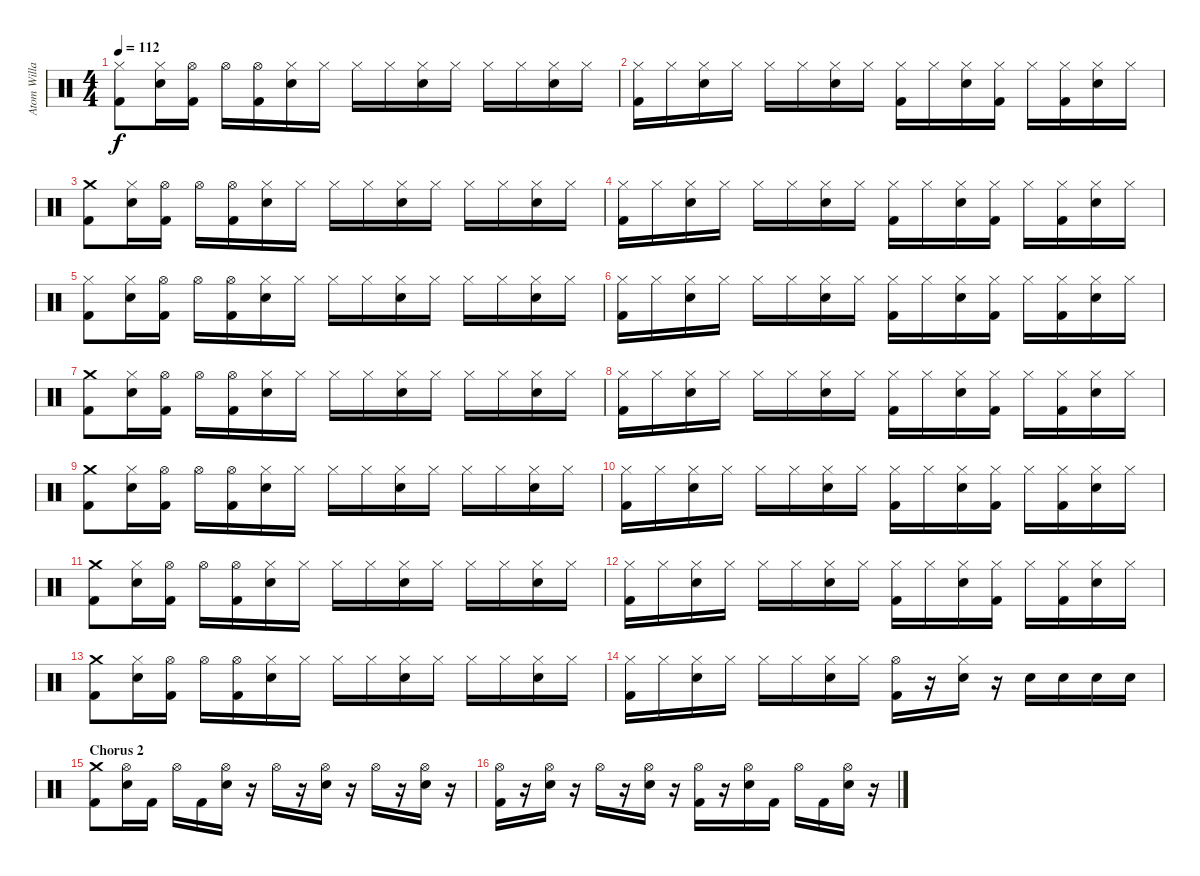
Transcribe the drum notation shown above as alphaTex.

\track ("Atom Willard Drums" "Atom Willa") {instrument percussion}
\staff {score}
\articulation defaults
\ts (4 4)
\tempo 112
\clef neutral
\ks c
("Hi-Hat (closed)" "Kick (hit) 2").8{dy f} ("Hi-Hat (closed)" "Electric Snare (hit)").16 ("Hi-Hat (open)" "Kick (hit) 2").16 "Hi-Hat (open)".16 ("Hi-Hat (open)" "Kick (hit) 2").16 ("Hi-Hat (closed)" "Electric Snare (hit)").16 "Hi-Hat (closed)".16 "Hi-Hat (closed)".16 "Hi-Hat (closed)".16 ("Hi-Hat (closed)" "Electric Snare (hit)").16 "Hi-Hat (closed)".16 "Hi-Hat (closed)".16 "Hi-Hat (closed)".16 ("Hi-Hat (closed)" "Electric Snare (hit)").16 "Hi-Hat (closed)".16 |
("Hi-Hat (closed)" "Kick (hit) 2").16 "Hi-Hat (closed)".16 ("Hi-Hat (closed)" "Electric Snare (hit)").16 "Hi-Hat (closed)".16 "Hi-Hat (closed)".16 "Hi-Hat (closed)".16 ("Hi-Hat (closed)" "Electric Snare (hit)").16 "Hi-Hat (closed)".16 ("Hi-Hat (closed)" "Kick (hit) 2").16 "Hi-Hat (closed)".16 ("Hi-Hat (closed)" "Electric Snare (hit)").16 ("Hi-Hat (closed)" "Kick (hit) 2").16 "Hi-Hat (closed)".16 ("Hi-Hat (closed)" "Kick (hit) 2").16 ("Hi-Hat (closed)" "Electric Snare (hit)").16 "Hi-Hat (closed)".16 |
("Crash medium (hit)" "Kick (hit) 2").8 ("Hi-Hat (closed)" "Electric Snare (hit)").16 ("Hi-Hat (open)" "Kick (hit) 2").16 "Hi-Hat (open)".16 ("Hi-Hat (open)" "Kick (hit) 2").16 ("Hi-Hat (closed)" "Electric Snare (hit)").16 "Hi-Hat (closed)".16 "Hi-Hat (closed)".16 "Hi-Hat (closed)".16 ("Hi-Hat (closed)" "Electric Snare (hit)").16 "Hi-Hat (closed)".16 "Hi-Hat (closed)".16 "Hi-Hat (closed)".16 ("Hi-Hat (closed)" "Electric Snare (hit)").16 "Hi-Hat (closed)".16 |
("Hi-Hat (closed)" "Kick (hit) 2").16 "Hi-Hat (closed)".16 ("Hi-Hat (closed)" "Electric Snare (hit)").16 "Hi-Hat (closed)".16 "Hi-Hat (closed)".16 "Hi-Hat (closed)".16 ("Hi-Hat (closed)" "Electric Snare (hit)").16 "Hi-Hat (closed)".16 ("Hi-Hat (closed)" "Kick (hit) 2").16 "Hi-Hat (closed)".16 ("Hi-Hat (closed)" "Electric Snare (hit)").16 ("Hi-Hat (closed)" "Kick (hit) 2").16 "Hi-Hat (closed)".16 ("Hi-Hat (closed)" "Kick (hit) 2").16 ("Hi-Hat (closed)" "Electric Snare (hit)").16 "Hi-Hat (closed)".16 |
("Hi-Hat (closed)" "Kick (hit) 2").8 ("Hi-Hat (closed)" "Electric Snare (hit)").16 ("Hi-Hat (open)" "Kick (hit) 2").16 "Hi-Hat (open)".16 ("Hi-Hat (open)" "Kick (hit) 2").16 ("Hi-Hat (closed)" "Electric Snare (hit)").16 "Hi-Hat (closed)".16 "Hi-Hat (closed)".16 "Hi-Hat (closed)".16 ("Hi-Hat (closed)" "Electric Snare (hit)").16 "Hi-Hat (closed)".16 "Hi-Hat (closed)".16 "Hi-Hat (closed)".16 ("Hi-Hat (closed)" "Electric Snare (hit)").16 "Hi-Hat (closed)".16 |
("Hi-Hat (closed)" "Kick (hit) 2").16 "Hi-Hat (closed)".16 ("Hi-Hat (closed)" "Electric Snare (hit)").16 "Hi-Hat (closed)".16 "Hi-Hat (closed)".16 "Hi-Hat (closed)".16 ("Hi-Hat (closed)" "Electric Snare (hit)").16 "Hi-Hat (closed)".16 ("Hi-Hat (closed)" "Kick (hit) 2").16 "Hi-Hat (closed)".16 ("Hi-Hat (closed)" "Electric Snare (hit)").16 ("Hi-Hat (closed)" "Kick (hit) 2").16 "Hi-Hat (closed)".16 ("Hi-Hat (closed)" "Kick (hit) 2").16 ("Hi-Hat (closed)" "Electric Snare (hit)").16 "Hi-Hat (closed)".16 |
("Crash medium (hit)" "Kick (hit) 2").8 ("Hi-Hat (closed)" "Electric Snare (hit)").16 ("Hi-Hat (open)" "Kick (hit) 2").16 "Hi-Hat (open)".16 ("Hi-Hat (open)" "Kick (hit) 2").16 ("Hi-Hat (closed)" "Electric Snare (hit)").16 "Hi-Hat (closed)".16 "Hi-Hat (closed)".16 "Hi-Hat (closed)".16 ("Hi-Hat (closed)" "Electric Snare (hit)").16 "Hi-Hat (closed)".16 "Hi-Hat (closed)".16 "Hi-Hat (closed)".16 ("Hi-Hat (closed)" "Electric Snare (hit)").16 "Hi-Hat (closed)".16 |
("Hi-Hat (closed)" "Kick (hit) 2").16 "Hi-Hat (closed)".16 ("Hi-Hat (closed)" "Electric Snare (hit)").16 "Hi-Hat (closed)".16 "Hi-Hat (closed)".16 "Hi-Hat (closed)".16 ("Hi-Hat (closed)" "Electric Snare (hit)").16 "Hi-Hat (closed)".16 ("Hi-Hat (closed)" "Kick (hit) 2").16 "Hi-Hat (closed)".16 ("Hi-Hat (closed)" "Electric Snare (hit)").16 ("Hi-Hat (closed)" "Kick (hit) 2").16 "Hi-Hat (closed)".16 ("Hi-Hat (closed)" "Kick (hit) 2").16 ("Hi-Hat (closed)" "Electric Snare (hit)").16 "Hi-Hat (closed)".16 |
("Crash medium (hit)" "Kick (hit) 2").8 ("Hi-Hat (closed)" "Electric Snare (hit)").16 ("Hi-Hat (open)" "Kick (hit) 2").16 "Hi-Hat (open)".16 ("Hi-Hat (open)" "Kick (hit) 2").16 ("Hi-Hat (closed)" "Electric Snare (hit)").16 "Hi-Hat (closed)".16 "Hi-Hat (closed)".16 "Hi-Hat (closed)".16 ("Hi-Hat (closed)" "Electric Snare (hit)").16 "Hi-Hat (closed)".16 "Hi-Hat (closed)".16 "Hi-Hat (closed)".16 ("Hi-Hat (closed)" "Electric Snare (hit)").16 "Hi-Hat (closed)".16 |
("Hi-Hat (closed)" "Kick (hit) 2").16 "Hi-Hat (closed)".16 ("Hi-Hat (closed)" "Electric Snare (hit)").16 "Hi-Hat (closed)".16 "Hi-Hat (closed)".16 "Hi-Hat (closed)".16 ("Hi-Hat (closed)" "Electric Snare (hit)").16 "Hi-Hat (closed)".16 ("Hi-Hat (closed)" "Kick (hit) 2").16 "Hi-Hat (closed)".16 ("Hi-Hat (closed)" "Electric Snare (hit)").16 ("Hi-Hat (closed)" "Kick (hit) 2").16 "Hi-Hat (closed)".16 ("Hi-Hat (closed)" "Kick (hit) 2").16 ("Hi-Hat (closed)" "Electric Snare (hit)").16 "Hi-Hat (closed)".16 |
("Crash medium (hit)" "Kick (hit) 2").8 ("Hi-Hat (closed)" "Electric Snare (hit)").16 ("Hi-Hat (open)" "Kick (hit) 2").16 "Hi-Hat (open)".16 ("Hi-Hat (open)" "Kick (hit) 2").16 ("Hi-Hat (closed)" "Electric Snare (hit)").16 "Hi-Hat (closed)".16 "Hi-Hat (closed)".16 "Hi-Hat (closed)".16 ("Hi-Hat (closed)" "Electric Snare (hit)").16 "Hi-Hat (closed)".16 "Hi-Hat (closed)".16 "Hi-Hat (closed)".16 ("Hi-Hat (closed)" "Electric Snare (hit)").16 "Hi-Hat (closed)".16 |
("Hi-Hat (closed)" "Kick (hit) 2").16 "Hi-Hat (closed)".16 ("Hi-Hat (closed)" "Electric Snare (hit)").16 "Hi-Hat (closed)".16 "Hi-Hat (closed)".16 "Hi-Hat (closed)".16 ("Hi-Hat (closed)" "Electric Snare (hit)").16 "Hi-Hat (closed)".16 ("Hi-Hat (closed)" "Kick (hit) 2").16 "Hi-Hat (closed)".16 ("Hi-Hat (closed)" "Electric Snare (hit)").16 ("Hi-Hat (closed)" "Kick (hit) 2").16 "Hi-Hat (closed)".16 ("Hi-Hat (closed)" "Kick (hit) 2").16 ("Hi-Hat (closed)" "Electric Snare (hit)").16 "Hi-Hat (closed)".16 |
("Crash medium (hit)" "Kick (hit) 2").8 ("Hi-Hat (closed)" "Electric Snare (hit)").16 ("Hi-Hat (open)" "Kick (hit) 2").16 "Hi-Hat (open)".16 ("Hi-Hat (open)" "Kick (hit) 2").16 ("Hi-Hat (closed)" "Electric Snare (hit)").16 "Hi-Hat (closed)".16 "Hi-Hat (closed)".16 "Hi-Hat (closed)".16 ("Hi-Hat (closed)" "Electric Snare (hit)").16 "Hi-Hat (closed)".16 "Hi-Hat (closed)".16 "Hi-Hat (closed)".16 ("Hi-Hat (closed)" "Electric Snare (hit)").16 "Hi-Hat (closed)".16 |
("Hi-Hat (closed)" "Kick (hit) 2").16 "Hi-Hat (closed)".16 ("Hi-Hat (closed)" "Electric Snare (hit)").16 "Hi-Hat (closed)".16 "Hi-Hat (closed)".16 "Hi-Hat (closed)".16 ("Hi-Hat (closed)" "Electric Snare (hit)").16 "Hi-Hat (closed)".16 ("Hi-Hat (open)" "Kick (hit) 2").16 r.16 ("Hi-Hat (closed)" "Electric Snare (hit)").16 r.16 "Electric Snare (hit)".16 "Electric Snare (hit)".16 "Electric Snare (hit)".16 "Electric Snare (hit)".16 |
\section ("" "Chorus 2")
("Crash medium (hit)" "Kick (hit) 2").8 ("Hi-Hat (open)" "Electric Snare (hit)").16 "Kick (hit) 2".16 "Hi-Hat (open)".16 "Kick (hit) 2".16 ("Hi-Hat (open)" "Electric Snare (hit)").16 r.16 "Hi-Hat (open)".16 r.16 ("Hi-Hat (open)" "Electric Snare (hit)").16 r.16 "Hi-Hat (open)".16 r.16 ("Hi-Hat (open)" "Electric Snare (hit)").16 r.16 |
("Hi-Hat (open)" "Kick (hit) 2").16 r.16 ("Hi-Hat (open)" "Electric Snare (hit)").16 r.16 "Hi-Hat (open)".16 r.16 ("Hi-Hat (open)" "Electric Snare (hit)").16 r.16 ("Hi-Hat (open)" "Kick (hit) 2").16 r.16 ("Hi-Hat (open)" "Electric Snare (hit)").16 "Kick (hit) 2".16 "Hi-Hat (open)".16 "Kick (hit) 2".16 ("Hi-Hat (open)" "Electric Snare (hit)").16 r.16
